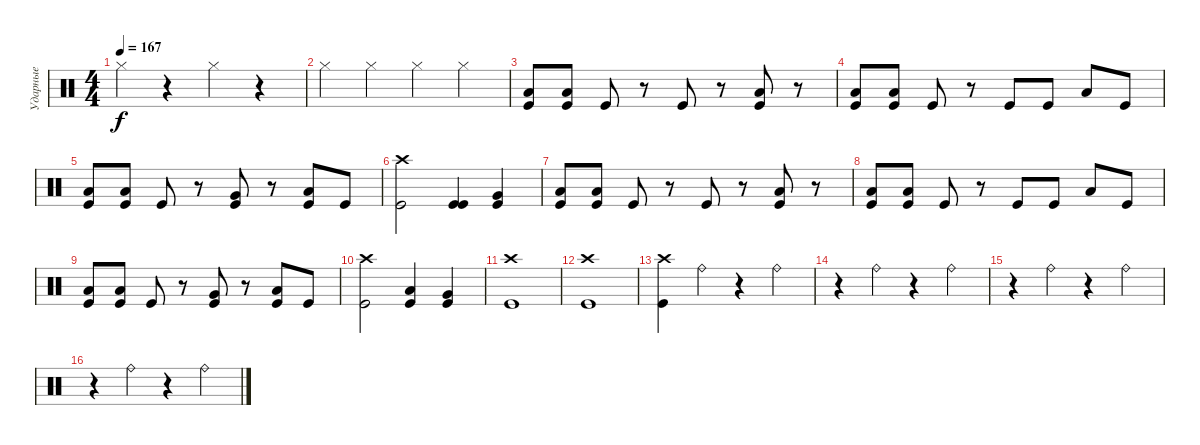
\track ("Ударные" "Ударные") {instrument percussion}
\staff {score}
\articulation defaults
\ts (4 4)
\tempo 167
\clef neutral
\ks c "Hi-Hat (closed)".4{dy f}
r.4 "Hi-Hat (closed)".4 r.4 |
"Hi-Hat (closed)".4 "Hi-Hat (closed)".4 "Hi-Hat (closed)".4 "Hi-Hat (closed)".4 |
("Low Tom (hit)" "Kick (hit)").8 ("Low Tom (hit)" "Kick (hit)").8 "Kick (hit)".8 r.8 "Kick (hit)".8 r.8 ("Low Tom (hit)" "Kick (hit)").8 r.8 |
("Low Tom (hit)" "Kick (hit)").8 ("Low Tom (hit)" "Kick (hit)").8 "Kick (hit)".8 r.8 "Kick (hit)".8 "Kick (hit)".8 "Low Tom (hit)".8 "Kick (hit)".8 |
("Low Tom (hit)" "Kick (hit)").8 ("Low Tom (hit)" "Kick (hit)").8 "Kick (hit)".8 r.8 ("Very Low Tom (hit)" "Kick (hit)").8 r.8 ("Low Tom (hit)" "Kick (hit)").8 "Kick (hit)".8 |
("Crash high (hit)" "Kick (hit)").2 ("Kick (hit)" "Kick (hit)").4 ("Very Low Tom (hit)" "Kick (hit)").4 |
("Low Tom (hit)" "Kick (hit)").8 ("Low Tom (hit)" "Kick (hit)").8 "Kick (hit)".8 r.8 "Kick (hit)".8 r.8 ("Low Tom (hit)" "Kick (hit)").8 r.8 |
("Low Tom (hit)" "Kick (hit)").8 ("Low Tom (hit)" "Kick (hit)").8 "Kick (hit)".8 r.8 "Kick (hit)".8 "Kick (hit)".8 "Low Tom (hit)".8 "Kick (hit)".8 |
("Low Tom (hit)" "Kick (hit)").8 ("Low Tom (hit)" "Kick (hit)").8 "Kick (hit)".8 r.8 ("Very Low Tom (hit)" "Kick (hit)").8 r.8 ("Low Tom (hit)" "Kick (hit)").8 "Kick (hit)".8 |
("Crash high (hit)" "Kick (hit)").2 ("Low Tom (hit)" "Kick (hit)").4 ("Very Low Tom (hit)" "Kick (hit)").4 |
("Crash high (hit)" "Kick (hit)").1 |
("Crash high (hit)" "Kick (hit)").1 |
("Crash high (hit)" "Kick (hit)").4 "Ride (bell)".4 r.4 "Ride (bell)".4 |
r.4 "Ride (bell)".4 r.4 "Ride (bell)".4 |
r.4 "Ride (bell)".4 r.4 "Ride (bell)".4 |
r.4 "Ride (bell)".4 r.4 "Ride (bell)".4
